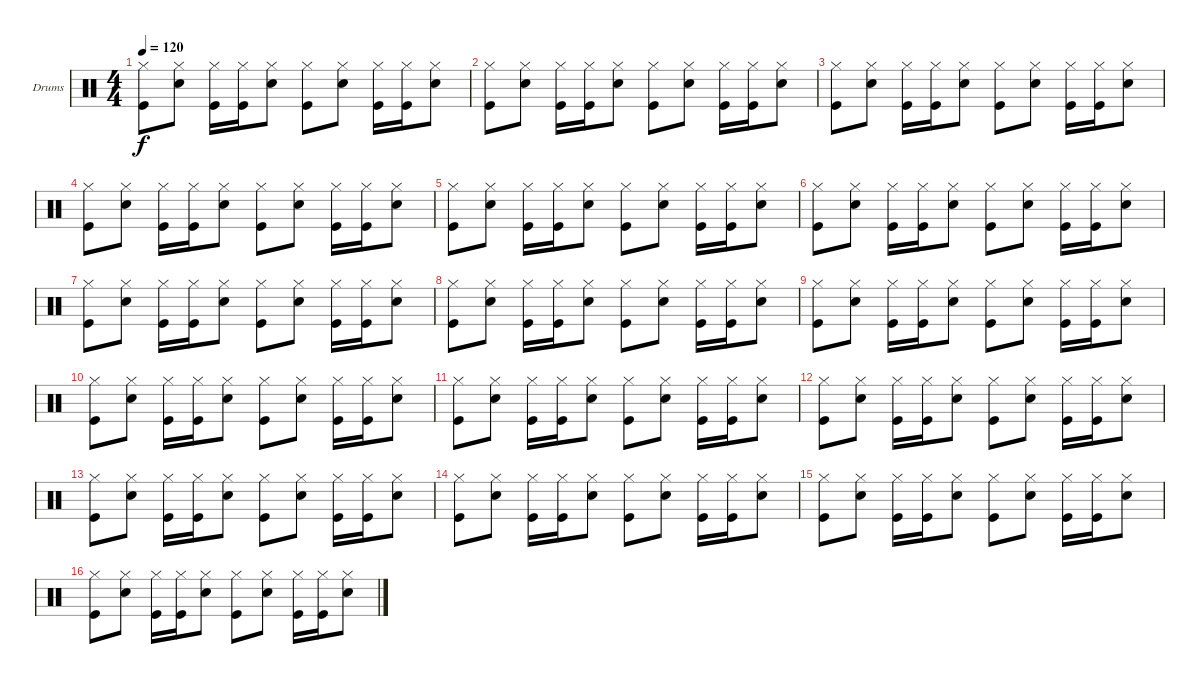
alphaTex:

\defaultSystemsLayout 4
\bracketExtendMode groupsimilarinstruments
\firstSystemTrackNameOrientation horizontal
\otherSystemsTrackNameOrientation horizontal
\track ("Drumkit" "Drums") {instrument percussion}
\staff {score}
\articulation defaults
\ts (4 4)
\tempo 120
\clef neutral
\ks c
("Hi-Hat (closed)" "Kick (hit)").8{dy f} ("Hi-Hat (closed)" "Snare (hit) 2").8 ("Hi-Hat (closed)" "Kick (hit)").16 ("Hi-Hat (closed)" "Kick (hit)").16 ("Hi-Hat (closed)" "Snare (hit) 2").8 ("Hi-Hat (closed)" "Kick (hit)").8 ("Hi-Hat (closed)" "Snare (hit) 2").8 ("Hi-Hat (closed)" "Kick (hit)").16 ("Hi-Hat (closed)" "Kick (hit)").16 ("Hi-Hat (closed)" "Snare (hit) 2").8 |
("Hi-Hat (closed)" "Kick (hit)").8 ("Hi-Hat (closed)" "Snare (hit) 2").8 ("Hi-Hat (closed)" "Kick (hit)").16 ("Hi-Hat (closed)" "Kick (hit)").16 ("Hi-Hat (closed)" "Snare (hit) 2").8 ("Hi-Hat (closed)" "Kick (hit)").8 ("Hi-Hat (closed)" "Snare (hit) 2").8 ("Hi-Hat (closed)" "Kick (hit)").16 ("Hi-Hat (closed)" "Kick (hit)").16 ("Hi-Hat (closed)" "Snare (hit) 2").8 |
("Hi-Hat (closed)" "Kick (hit)").8 ("Hi-Hat (closed)" "Snare (hit) 2").8 ("Hi-Hat (closed)" "Kick (hit)").16 ("Hi-Hat (closed)" "Kick (hit)").16 ("Hi-Hat (closed)" "Snare (hit) 2").8 ("Hi-Hat (closed)" "Kick (hit)").8 ("Hi-Hat (closed)" "Snare (hit) 2").8 ("Hi-Hat (closed)" "Kick (hit)").16 ("Hi-Hat (closed)" "Kick (hit)").16 ("Hi-Hat (closed)" "Snare (hit) 2").8 |
("Hi-Hat (closed)" "Kick (hit)").8 ("Hi-Hat (closed)" "Snare (hit) 2").8 ("Hi-Hat (closed)" "Kick (hit)").16 ("Hi-Hat (closed)" "Kick (hit)").16 ("Hi-Hat (closed)" "Snare (hit) 2").8 ("Hi-Hat (closed)" "Kick (hit)").8 ("Hi-Hat (closed)" "Snare (hit) 2").8 ("Hi-Hat (closed)" "Kick (hit)").16 ("Hi-Hat (closed)" "Kick (hit)").16 ("Hi-Hat (closed)" "Snare (hit) 2").8 |
("Hi-Hat (closed)" "Kick (hit)").8 ("Hi-Hat (closed)" "Snare (hit) 2").8 ("Hi-Hat (closed)" "Kick (hit)").16 ("Hi-Hat (closed)" "Kick (hit)").16 ("Hi-Hat (closed)" "Snare (hit) 2").8 ("Hi-Hat (closed)" "Kick (hit)").8 ("Hi-Hat (closed)" "Snare (hit) 2").8 ("Hi-Hat (closed)" "Kick (hit)").16 ("Hi-Hat (closed)" "Kick (hit)").16 ("Hi-Hat (closed)" "Snare (hit) 2").8 |
("Hi-Hat (closed)" "Kick (hit)").8 ("Hi-Hat (closed)" "Snare (hit) 2").8 ("Hi-Hat (closed)" "Kick (hit)").16 ("Hi-Hat (closed)" "Kick (hit)").16 ("Hi-Hat (closed)" "Snare (hit) 2").8 ("Hi-Hat (closed)" "Kick (hit)").8 ("Hi-Hat (closed)" "Snare (hit) 2").8 ("Hi-Hat (closed)" "Kick (hit)").16 ("Hi-Hat (closed)" "Kick (hit)").16 ("Hi-Hat (closed)" "Snare (hit) 2").8 |
("Hi-Hat (closed)" "Kick (hit)").8 ("Hi-Hat (closed)" "Snare (hit) 2").8 ("Hi-Hat (closed)" "Kick (hit)").16 ("Hi-Hat (closed)" "Kick (hit)").16 ("Hi-Hat (closed)" "Snare (hit) 2").8 ("Hi-Hat (closed)" "Kick (hit)").8 ("Hi-Hat (closed)" "Snare (hit) 2").8 ("Hi-Hat (closed)" "Kick (hit)").16 ("Hi-Hat (closed)" "Kick (hit)").16 ("Hi-Hat (closed)" "Snare (hit) 2").8 |
("Hi-Hat (closed)" "Kick (hit)").8 ("Hi-Hat (closed)" "Snare (hit) 2").8 ("Hi-Hat (closed)" "Kick (hit)").16 ("Hi-Hat (closed)" "Kick (hit)").16 ("Hi-Hat (closed)" "Snare (hit) 2").8 ("Hi-Hat (closed)" "Kick (hit)").8 ("Hi-Hat (closed)" "Snare (hit) 2").8 ("Hi-Hat (closed)" "Kick (hit)").16 ("Hi-Hat (closed)" "Kick (hit)").16 ("Hi-Hat (closed)" "Snare (hit) 2").8 |
("Hi-Hat (closed)" "Kick (hit)").8 ("Hi-Hat (closed)" "Snare (hit) 2").8 ("Hi-Hat (closed)" "Kick (hit)").16 ("Hi-Hat (closed)" "Kick (hit)").16 ("Hi-Hat (closed)" "Snare (hit) 2").8 ("Hi-Hat (closed)" "Kick (hit)").8 ("Hi-Hat (closed)" "Snare (hit) 2").8 ("Hi-Hat (closed)" "Kick (hit)").16 ("Hi-Hat (closed)" "Kick (hit)").16 ("Hi-Hat (closed)" "Snare (hit) 2").8 |
("Hi-Hat (closed)" "Kick (hit)").8 ("Hi-Hat (closed)" "Snare (hit) 2").8 ("Hi-Hat (closed)" "Kick (hit)").16 ("Hi-Hat (closed)" "Kick (hit)").16 ("Hi-Hat (closed)" "Snare (hit) 2").8 ("Hi-Hat (closed)" "Kick (hit)").8 ("Hi-Hat (closed)" "Snare (hit) 2").8 ("Hi-Hat (closed)" "Kick (hit)").16 ("Hi-Hat (closed)" "Kick (hit)").16 ("Hi-Hat (closed)" "Snare (hit) 2").8 |
("Hi-Hat (closed)" "Kick (hit)").8 ("Hi-Hat (closed)" "Snare (hit) 2").8 ("Hi-Hat (closed)" "Kick (hit)").16 ("Hi-Hat (closed)" "Kick (hit)").16 ("Hi-Hat (closed)" "Snare (hit) 2").8 ("Hi-Hat (closed)" "Kick (hit)").8 ("Hi-Hat (closed)" "Snare (hit) 2").8 ("Hi-Hat (closed)" "Kick (hit)").16 ("Hi-Hat (closed)" "Kick (hit)").16 ("Hi-Hat (closed)" "Snare (hit) 2").8 |
("Hi-Hat (closed)" "Kick (hit)").8 ("Hi-Hat (closed)" "Snare (hit) 2").8 ("Hi-Hat (closed)" "Kick (hit)").16 ("Hi-Hat (closed)" "Kick (hit)").16 ("Hi-Hat (closed)" "Snare (hit) 2").8 ("Hi-Hat (closed)" "Kick (hit)").8 ("Hi-Hat (closed)" "Snare (hit) 2").8 ("Hi-Hat (closed)" "Kick (hit)").16 ("Hi-Hat (closed)" "Kick (hit)").16 ("Hi-Hat (closed)" "Snare (hit) 2").8 |
("Hi-Hat (closed)" "Kick (hit)").8 ("Hi-Hat (closed)" "Snare (hit) 2").8 ("Hi-Hat (closed)" "Kick (hit)").16 ("Hi-Hat (closed)" "Kick (hit)").16 ("Hi-Hat (closed)" "Snare (hit) 2").8 ("Hi-Hat (closed)" "Kick (hit)").8 ("Hi-Hat (closed)" "Snare (hit) 2").8 ("Hi-Hat (closed)" "Kick (hit)").16 ("Hi-Hat (closed)" "Kick (hit)").16 ("Hi-Hat (closed)" "Snare (hit) 2").8 |
("Hi-Hat (closed)" "Kick (hit)").8 ("Hi-Hat (closed)" "Snare (hit) 2").8 ("Hi-Hat (closed)" "Kick (hit)").16 ("Hi-Hat (closed)" "Kick (hit)").16 ("Hi-Hat (closed)" "Snare (hit) 2").8 ("Hi-Hat (closed)" "Kick (hit)").8 ("Hi-Hat (closed)" "Snare (hit) 2").8 ("Hi-Hat (closed)" "Kick (hit)").16 ("Hi-Hat (closed)" "Kick (hit)").16 ("Hi-Hat (closed)" "Snare (hit) 2").8 |
("Hi-Hat (closed)" "Kick (hit)").8 ("Hi-Hat (closed)" "Snare (hit) 2").8 ("Hi-Hat (closed)" "Kick (hit)").16 ("Hi-Hat (closed)" "Kick (hit)").16 ("Hi-Hat (closed)" "Snare (hit) 2").8 ("Hi-Hat (closed)" "Kick (hit)").8 ("Hi-Hat (closed)" "Snare (hit) 2").8 ("Hi-Hat (closed)" "Kick (hit)").16 ("Hi-Hat (closed)" "Kick (hit)").16 ("Hi-Hat (closed)" "Snare (hit) 2").8 |
("Hi-Hat (closed)" "Kick (hit)").8 ("Hi-Hat (closed)" "Snare (hit) 2").8 ("Hi-Hat (closed)" "Kick (hit)").16 ("Hi-Hat (closed)" "Kick (hit)").16 ("Hi-Hat (closed)" "Snare (hit) 2").8 ("Hi-Hat (closed)" "Kick (hit)").8 ("Hi-Hat (closed)" "Snare (hit) 2").8 ("Hi-Hat (closed)" "Kick (hit)").16 ("Hi-Hat (closed)" "Kick (hit)").16 ("Hi-Hat (closed)" "Snare (hit) 2").8
